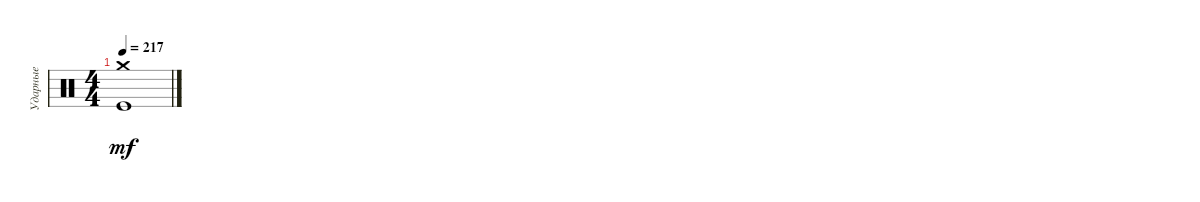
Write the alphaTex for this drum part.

\track ("Ударные" "Ударные") {instrument percussion}
\staff {score}
\articulation defaults
\ts (4 4)
\tempo 217
\clef neutral
\ks c
("Kick (hit)" "Crash medium (hit)").1{dy mf}
